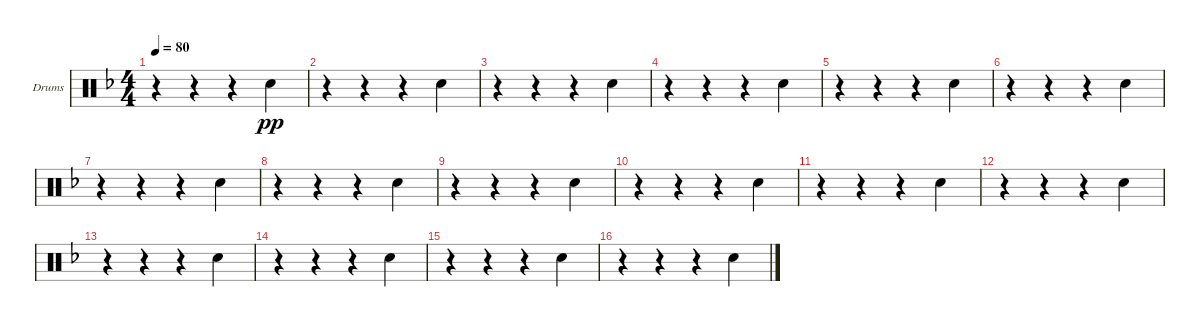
\defaultSystemsLayout 4
\bracketExtendMode groupsimilarinstruments
\firstSystemTrackNameOrientation horizontal
\otherSystemsTrackNameOrientation horizontal
\track ("Drumkit" "Drums") {instrument percussion}
\staff {score}
\articulation defaults
\ts (4 4)
\tempo 80
\clef neutral
\ks f
r.4{dy pp} r.4 r.4 "Snare (hit) 2".4 |
r.4 r.4 r.4 "Snare (hit) 2".4 |
r.4 r.4 r.4 "Snare (hit) 2".4 |
r.4 r.4 r.4 "Snare (hit) 2".4 |
r.4 r.4 r.4 "Snare (hit) 2".4 |
r.4 r.4 r.4 "Snare (hit) 2".4 |
r.4 r.4 r.4 "Snare (hit) 2".4 |
r.4 r.4 r.4 "Snare (hit) 2".4 |
r.4 r.4 r.4 "Snare (hit) 2".4 |
r.4 r.4 r.4 "Snare (hit) 2".4 |
r.4 r.4 r.4 "Snare (hit) 2".4 |
r.4 r.4 r.4 "Snare (hit) 2".4 |
r.4 r.4 r.4 "Snare (hit) 2".4 |
r.4 r.4 r.4 "Snare (hit) 2".4 |
r.4 r.4 r.4 "Snare (hit) 2".4 |
r.4 r.4 r.4 "Snare (hit) 2".4
